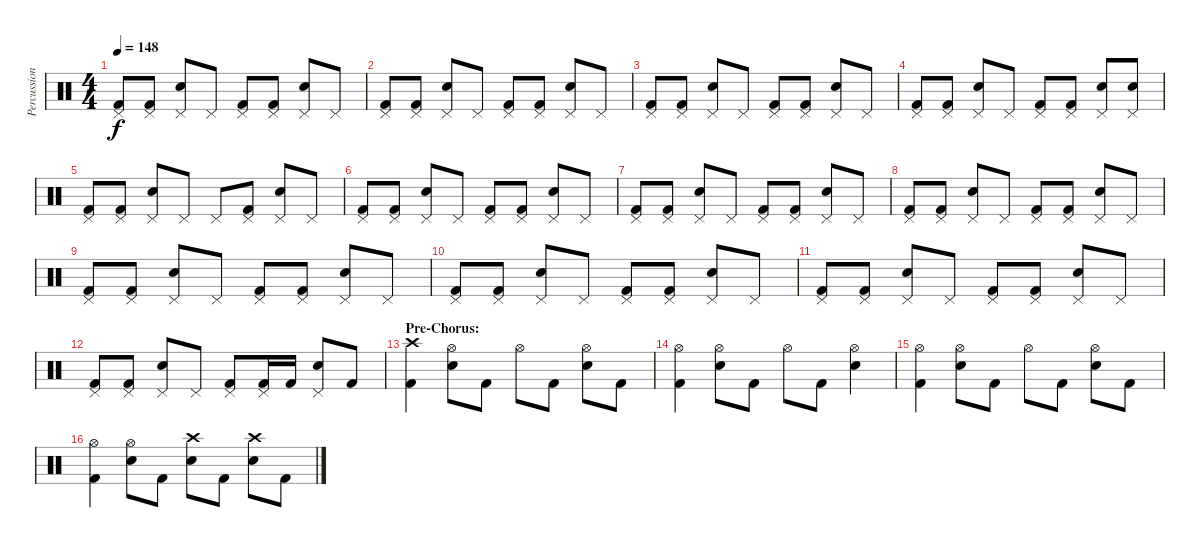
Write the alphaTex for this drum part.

\track ("Percussion" "Percussion") {instrument percussion}
\staff {score}
\articulation defaults
\ts (4 4)
\tempo 148
\clef neutral
\ks c
("Pedal Hi-Hat (hit)" "Kick (hit) 2").8{dy f} ("Pedal Hi-Hat (hit)" "Kick (hit) 2").8 ("Pedal Hi-Hat (hit)" "Electric Snare (hit)").8 "Pedal Hi-Hat (hit)".8 ("Pedal Hi-Hat (hit)" "Kick (hit) 2").8 ("Pedal Hi-Hat (hit)" "Kick (hit) 2").8 ("Pedal Hi-Hat (hit)" "Electric Snare (hit)").8 "Pedal Hi-Hat (hit)".8 |
("Pedal Hi-Hat (hit)" "Kick (hit) 2").8 ("Pedal Hi-Hat (hit)" "Kick (hit) 2").8 ("Pedal Hi-Hat (hit)" "Electric Snare (hit)").8 "Pedal Hi-Hat (hit)".8 ("Pedal Hi-Hat (hit)" "Kick (hit) 2").8 ("Pedal Hi-Hat (hit)" "Kick (hit) 2").8 ("Pedal Hi-Hat (hit)" "Electric Snare (hit)").8 "Pedal Hi-Hat (hit)".8 |
("Pedal Hi-Hat (hit)" "Kick (hit) 2").8 ("Pedal Hi-Hat (hit)" "Kick (hit) 2").8 ("Pedal Hi-Hat (hit)" "Electric Snare (hit)").8 "Pedal Hi-Hat (hit)".8 ("Pedal Hi-Hat (hit)" "Kick (hit) 2").8 ("Pedal Hi-Hat (hit)" "Kick (hit) 2").8 ("Pedal Hi-Hat (hit)" "Electric Snare (hit)").8 "Pedal Hi-Hat (hit)".8 |
("Pedal Hi-Hat (hit)" "Kick (hit) 2").8 ("Pedal Hi-Hat (hit)" "Kick (hit) 2").8 ("Pedal Hi-Hat (hit)" "Electric Snare (hit)").8 "Pedal Hi-Hat (hit)".8 ("Pedal Hi-Hat (hit)" "Kick (hit) 2").8 ("Pedal Hi-Hat (hit)" "Kick (hit) 2").8 ("Pedal Hi-Hat (hit)" "Electric Snare (hit)").8 ("Pedal Hi-Hat (hit)" "Electric Snare (hit)").8 |
("Pedal Hi-Hat (hit)" "Kick (hit) 2").8 ("Pedal Hi-Hat (hit)" "Kick (hit) 2").8 ("Pedal Hi-Hat (hit)" "Electric Snare (hit)").8 "Pedal Hi-Hat (hit)".8 "Pedal Hi-Hat (hit)".8 ("Pedal Hi-Hat (hit)" "Kick (hit) 2").8 ("Pedal Hi-Hat (hit)" "Electric Snare (hit)").8 "Pedal Hi-Hat (hit)".8 |
("Pedal Hi-Hat (hit)" "Kick (hit) 2").8 ("Pedal Hi-Hat (hit)" "Kick (hit) 2").8 ("Pedal Hi-Hat (hit)" "Electric Snare (hit)").8 "Pedal Hi-Hat (hit)".8 ("Pedal Hi-Hat (hit)" "Kick (hit) 2").8 ("Pedal Hi-Hat (hit)" "Kick (hit) 2").8 ("Pedal Hi-Hat (hit)" "Electric Snare (hit)").8 "Pedal Hi-Hat (hit)".8 |
("Pedal Hi-Hat (hit)" "Kick (hit) 2").8 ("Pedal Hi-Hat (hit)" "Kick (hit) 2").8 ("Pedal Hi-Hat (hit)" "Electric Snare (hit)").8 "Pedal Hi-Hat (hit)".8 ("Pedal Hi-Hat (hit)" "Kick (hit) 2").8 ("Pedal Hi-Hat (hit)" "Kick (hit) 2").8 ("Pedal Hi-Hat (hit)" "Electric Snare (hit)").8 "Pedal Hi-Hat (hit)".8 |
("Pedal Hi-Hat (hit)" "Kick (hit) 2").8 ("Pedal Hi-Hat (hit)" "Kick (hit) 2").8 ("Pedal Hi-Hat (hit)" "Electric Snare (hit)").8 "Pedal Hi-Hat (hit)".8 ("Pedal Hi-Hat (hit)" "Kick (hit) 2").8 ("Pedal Hi-Hat (hit)" "Kick (hit) 2").8 ("Pedal Hi-Hat (hit)" "Electric Snare (hit)").8 "Pedal Hi-Hat (hit)".8 |
("Pedal Hi-Hat (hit)" "Kick (hit) 2").8 ("Pedal Hi-Hat (hit)" "Kick (hit) 2").8 ("Pedal Hi-Hat (hit)" "Electric Snare (hit)").8 "Pedal Hi-Hat (hit)".8 ("Pedal Hi-Hat (hit)" "Kick (hit) 2").8 ("Pedal Hi-Hat (hit)" "Kick (hit) 2").8 ("Pedal Hi-Hat (hit)" "Electric Snare (hit)").8 "Pedal Hi-Hat (hit)".8 |
("Pedal Hi-Hat (hit)" "Kick (hit) 2").8 ("Pedal Hi-Hat (hit)" "Kick (hit) 2").8 ("Pedal Hi-Hat (hit)" "Electric Snare (hit)").8 "Pedal Hi-Hat (hit)".8 ("Pedal Hi-Hat (hit)" "Kick (hit) 2").8 ("Pedal Hi-Hat (hit)" "Kick (hit) 2").8 ("Pedal Hi-Hat (hit)" "Electric Snare (hit)").8 "Pedal Hi-Hat (hit)".8 |
("Pedal Hi-Hat (hit)" "Kick (hit) 2").8 ("Pedal Hi-Hat (hit)" "Kick (hit) 2").8 ("Pedal Hi-Hat (hit)" "Electric Snare (hit)").8 "Pedal Hi-Hat (hit)".8 ("Pedal Hi-Hat (hit)" "Kick (hit) 2").8 ("Pedal Hi-Hat (hit)" "Kick (hit) 2").8 ("Pedal Hi-Hat (hit)" "Electric Snare (hit)").8 "Pedal Hi-Hat (hit)".8 |
("Pedal Hi-Hat (hit)" "Kick (hit) 2").8 ("Pedal Hi-Hat (hit)" "Kick (hit) 2").8 ("Pedal Hi-Hat (hit)" "Electric Snare (hit)").8 "Pedal Hi-Hat (hit)".8 ("Pedal Hi-Hat (hit)" "Kick (hit) 2").8 ("Pedal Hi-Hat (hit)" "Kick (hit) 2").16 "Kick (hit) 2".16 ("Pedal Hi-Hat (hit)" "Electric Snare (hit)").8 "Kick (hit) 2".8 |
\section ("" "Pre-Chorus:")
("Crash high (hit)" "Kick (hit) 2").4 ("Hi-Hat (open)" "Electric Snare (hit)").8 "Kick (hit) 2".8 "Hi-Hat (open)".8 "Kick (hit) 2".8 ("Hi-Hat (open)" "Electric Snare (hit)").8 "Kick (hit) 2".8 |
("Hi-Hat (open)" "Kick (hit) 2").4 ("Hi-Hat (open)" "Electric Snare (hit)").8 "Kick (hit) 2".8 "Hi-Hat (open)".8 "Kick (hit) 2".8 ("Hi-Hat (open)" "Electric Snare (hit)").4 |
("Hi-Hat (open)" "Kick (hit) 2").4 ("Hi-Hat (open)" "Electric Snare (hit)").8 "Kick (hit) 2".8 "Hi-Hat (open)".8 "Kick (hit) 2".8 ("Hi-Hat (open)" "Electric Snare (hit)").8 "Kick (hit) 2".8 |
("Hi-Hat (open)" "Kick (hit) 2").4 ("Hi-Hat (open)" "Electric Snare (hit)").8 "Kick (hit) 2".8 ("Crash high (hit)" "Electric Snare (hit)").8 "Kick (hit) 2".8 ("Crash high (hit)" "Electric Snare (hit)").8 "Kick (hit) 2".8
